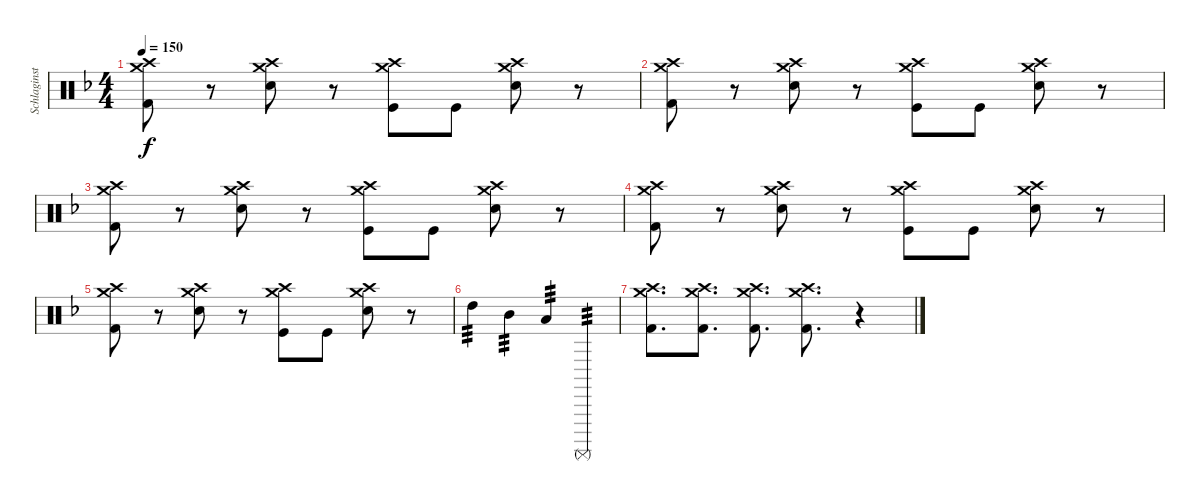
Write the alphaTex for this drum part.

\track ("Schlaginstrumente - Auswahl" "Schlaginst") {instrument percussion}
\staff {score}
\articulation defaults
\ts (4 4)
\tempo 150
\clef neutral
\ks f
("Crash medium (hit)" "Kick (hit) 2" "Crash high (hit)").8{dy f} r.8 ("Crash high (hit)" "Snare (hit) 2" "Crash medium (hit)").8 r.8 ("Crash medium (hit)" "Kick (hit)" "Crash high (hit)").8 "Kick (hit)".8 ("Crash high (hit)" "Snare (hit) 2" "Crash medium (hit)").8 r.8 |
("Crash medium (hit)" "Kick (hit) 2" "Crash high (hit)").8 r.8 ("Crash high (hit)" "Snare (hit) 2" "Crash medium (hit)").8 r.8 ("Crash medium (hit)" "Kick (hit)" "Crash high (hit)").8 "Kick (hit)".8 ("Crash high (hit)" "Snare (hit) 2" "Crash medium (hit)").8 r.8 |
("Crash medium (hit)" "Kick (hit) 2" "Crash high (hit)").8 r.8 ("Crash high (hit)" "Snare (hit) 2" "Crash medium (hit)").8 r.8 ("Crash medium (hit)" "Kick (hit)" "Crash high (hit)").8 "Kick (hit)".8 ("Crash high (hit)" "Snare (hit) 2" "Crash medium (hit)").8 r.8 |
("Crash medium (hit)" "Kick (hit) 2" "Crash high (hit)").8 r.8 ("Crash high (hit)" "Snare (hit) 2" "Crash medium (hit)").8 r.8 ("Crash medium (hit)" "Kick (hit)" "Crash high (hit)").8 "Kick (hit)".8 ("Crash high (hit)" "Snare (hit) 2" "Crash medium (hit)").8 r.8 |
("Crash medium (hit)" "Kick (hit) 2" "Crash high (hit)").8 r.8 ("Crash high (hit)" "Snare (hit) 2" "Crash medium (hit)").8 r.8 ("Crash medium (hit)" "Kick (hit)" "Crash high (hit)").8 "Kick (hit)".8 ("Crash high (hit)" "Snare (hit) 2" "Crash medium (hit)").8 r.8 |
"High Tom (hit)".4{tp 3} "Mid Tom (hit)".4{tp 3} "Low Tom (hit)".4{tp 3} "Surdo (mute)".4{tp 3} |
("Kick (hit) 2" "Crash high (hit)" "Crash medium (hit)").8{d} ("Kick (hit) 2" "Crash medium (hit)" "Crash high (hit)").8{d} ("Kick (hit) 2" "Crash high (hit)" "Crash medium (hit)").8{d} ("Kick (hit) 2" "Crash medium (hit)" "Crash high (hit)").8{d} r.4
